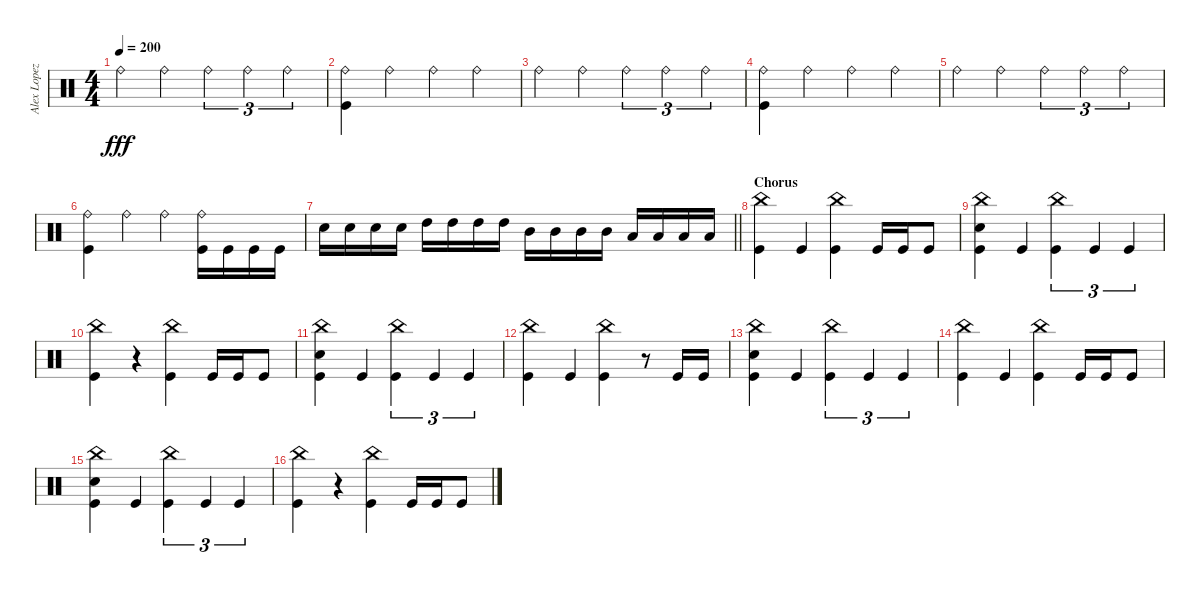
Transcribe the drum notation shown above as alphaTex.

\track ("Alex Lopez" "Alex Lopez") {instrument percussion}
\staff {score}
\articulation defaults
\ts (4 4)
\tempo 200
\clef neutral
\ks c "Ride (bell)".4{dy fff} "Ride (bell)".4 "Ride (bell)".4{tu (3 2)} "Ride (bell)".4{tu (3 2)} "Ride (bell)".4{tu (3 2)}
|
("Ride (bell)" "Kick (hit)").4 "Ride (bell)".4 "Ride (bell)".4 "Ride (bell)".4 |
"Ride (bell)".4 "Ride (bell)".4 "Ride (bell)".4{tu (3 2)} "Ride (bell)".4{tu (3 2)} "Ride (bell)".4{tu (3 2)} |
("Ride (bell)" "Kick (hit)").4 "Ride (bell)".4 "Ride (bell)".4 "Ride (bell)".4 |
"Ride (bell)".4 "Ride (bell)".4 "Ride (bell)".4{tu (3 2)} "Ride (bell)".4{tu (3 2)} "Ride (bell)".4{tu (3 2)} |
("Ride (bell)" "Kick (hit)").4 "Ride (bell)".4 "Ride (bell)".4 ("Ride (bell)" "Kick (hit)").16 "Kick (hit)".16 "Kick (hit)".16 "Kick (hit)".16 |
\barLineRight lightlight "Snare (hit) 2".16 "Snare (hit) 2".16 "Snare (hit) 2".16 "Snare (hit) 2".16 "High Tom (hit)".16 "High Tom (hit)".16 "High Tom (hit)".16 "High Tom (hit)".16 "Mid Tom (hit)".16 "Mid Tom (hit)".16 "Mid Tom (hit)".16 "Mid Tom (hit)".16 "Low Tom (hit)".16 "Low Tom (hit)".16 "Low Tom (hit)".16 "Low Tom (hit)".16
|
\section ("" "Chorus")
("China (hit)" "Kick (hit)").4 "Kick (hit)".4 ("China (hit)" "Kick (hit)").4 "Kick (hit)".16 "Kick (hit)".16 "Kick (hit)".8 |
("China (hit)" "Snare (hit) 2" "Kick (hit)").4 "Kick (hit)".4 ("China (hit)" "Kick (hit)").4{tu (3 2)} "Kick (hit)".4{tu (3 2)} "Kick (hit)".4{tu (3 2)} |
("China (hit)" "Kick (hit)").4 r.4 ("China (hit)" "Kick (hit)").4 "Kick (hit)".16 "Kick (hit)".16 "Kick (hit)".8 |
("China (hit)" "Snare (hit) 2" "Kick (hit)").4 "Kick (hit)".4 ("China (hit)" "Kick (hit)").4{tu (3 2)} "Kick (hit)".4{tu (3 2)} "Kick (hit)".4{tu (3 2)} |
("China (hit)" "Kick (hit)").4 "Kick (hit)".4 ("China (hit)" "Kick (hit)").4 r.8 "Kick (hit)".16 "Kick (hit)".16 |
("China (hit)" "Snare (hit) 2" "Kick (hit)").4 "Kick (hit)".4 ("China (hit)" "Kick (hit)").4{tu (3 2)} "Kick (hit)".4{tu (3 2)} "Kick (hit)".4{tu (3 2)} |
("China (hit)" "Kick (hit)").4 "Kick (hit)".4 ("China (hit)" "Kick (hit)").4 "Kick (hit)".16 "Kick (hit)".16 "Kick (hit)".8 |
("China (hit)" "Snare (hit) 2" "Kick (hit)").4 "Kick (hit)".4 ("China (hit)" "Kick (hit)").4{tu (3 2)} "Kick (hit)".4{tu (3 2)} "Kick (hit)".4{tu (3 2)} |
("China (hit)" "Kick (hit)").4 r.4 ("China (hit)" "Kick (hit)").4 "Kick (hit)".16 "Kick (hit)".16 "Kick (hit)".8
